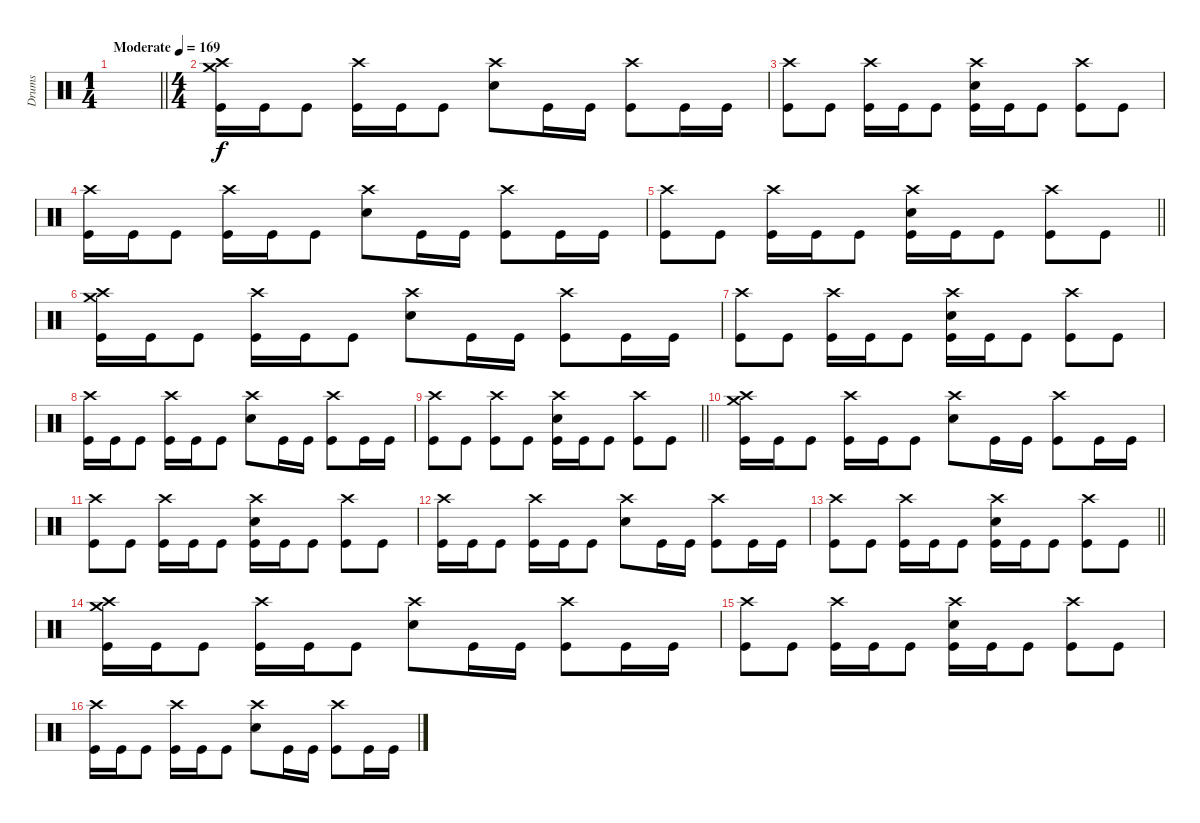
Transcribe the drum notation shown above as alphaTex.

\track ("Drums" "Drums") {instrument percussion}
\staff
\articulation defaults
\ts (1 4)
\tempo (169 "Moderate")
\clef neutral
\barLineRight lightlight
\ks c
|
\ts (4 4)
("Crash high (hit)" "Crash medium (hit)" "Kick (hit)").16 "Kick (hit)".16 "Kick (hit)".8 ("Crash high (hit)" "Kick (hit)").16 "Kick (hit)".16 "Kick (hit)".8 ("Crash high (hit)" "Electric Snare (hit)").8 "Kick (hit)".16 "Kick (hit)".16 ("Crash high (hit)" "Kick (hit)").8 "Kick (hit)".16 "Kick (hit)".16 |
("Crash high (hit)" "Kick (hit)").8 "Kick (hit)".8 ("Crash high (hit)" "Kick (hit)").16 "Kick (hit)".16 "Kick (hit)".8 ("Crash high (hit)" "Electric Snare (hit)" "Kick (hit)").16 "Kick (hit)".16 "Kick (hit)".8 ("Crash high (hit)" "Kick (hit)").8 "Kick (hit)".8 |
("Crash high (hit)" "Kick (hit)").16 "Kick (hit)".16 "Kick (hit)".8 ("Crash high (hit)" "Kick (hit)").16 "Kick (hit)".16 "Kick (hit)".8 ("Crash high (hit)" "Electric Snare (hit)").8 "Kick (hit)".16 "Kick (hit)".16 ("Crash high (hit)" "Kick (hit)").8 "Kick (hit)".16 "Kick (hit)".16 |
\barLineRight lightlight
("Crash high (hit)" "Kick (hit)").8 "Kick (hit)".8 ("Crash high (hit)" "Kick (hit)").16 "Kick (hit)".16 "Kick (hit)".8 ("Crash high (hit)" "Electric Snare (hit)" "Kick (hit)").16 "Kick (hit)".16 "Kick (hit)".8 ("Crash high (hit)" "Kick (hit)").8 "Kick (hit)".8 |
("Crash high (hit)" "Crash medium (hit)" "Kick (hit)").16 "Kick (hit)".16 "Kick (hit)".8 ("Crash high (hit)" "Kick (hit)").16 "Kick (hit)".16 "Kick (hit)".8 ("Crash high (hit)" "Electric Snare (hit)").8 "Kick (hit)".16 "Kick (hit)".16 ("Crash high (hit)" "Kick (hit)").8 "Kick (hit)".16 "Kick (hit)".16 |
("Crash high (hit)" "Kick (hit)").8 "Kick (hit)".8 ("Crash high (hit)" "Kick (hit)").16 "Kick (hit)".16 "Kick (hit)".8 ("Crash high (hit)" "Electric Snare (hit)" "Kick (hit)").16 "Kick (hit)".16 "Kick (hit)".8 ("Crash high (hit)" "Kick (hit)").8 "Kick (hit)".8 |
("Crash high (hit)" "Kick (hit)").16 "Kick (hit)".16 "Kick (hit)".8 ("Crash high (hit)" "Kick (hit)").16 "Kick (hit)".16 "Kick (hit)".8 ("Crash high (hit)" "Electric Snare (hit)").8 "Kick (hit)".16 "Kick (hit)".16 ("Crash high (hit)" "Kick (hit)").8 "Kick (hit)".16 "Kick (hit)".16 |
\barLineRight lightlight
("Crash high (hit)" "Kick (hit)").8 "Kick (hit)".8 ("Crash high (hit)" "Kick (hit)").8 "Kick (hit)".8 ("Crash high (hit)" "Electric Snare (hit)" "Kick (hit)").16 "Kick (hit)".16 "Kick (hit)".8 ("Crash high (hit)" "Kick (hit)").8 "Kick (hit)".8 |
("Crash high (hit)" "Crash medium (hit)" "Kick (hit)").16 "Kick (hit)".16 "Kick (hit)".8 ("Crash high (hit)" "Kick (hit)").16 "Kick (hit)".16 "Kick (hit)".8 ("Crash high (hit)" "Electric Snare (hit)").8 "Kick (hit)".16 "Kick (hit)".16 ("Crash high (hit)" "Kick (hit)").8 "Kick (hit)".16 "Kick (hit)".16 |
("Crash high (hit)" "Kick (hit)").8 "Kick (hit)".8 ("Crash high (hit)" "Kick (hit)").16 "Kick (hit)".16 "Kick (hit)".8 ("Crash high (hit)" "Electric Snare (hit)" "Kick (hit)").16 "Kick (hit)".16 "Kick (hit)".8 ("Crash high (hit)" "Kick (hit)").8 "Kick (hit)".8 |
("Crash high (hit)" "Kick (hit)").16 "Kick (hit)".16 "Kick (hit)".8 ("Crash high (hit)" "Kick (hit)").16 "Kick (hit)".16 "Kick (hit)".8 ("Crash high (hit)" "Electric Snare (hit)").8 "Kick (hit)".16 "Kick (hit)".16 ("Crash high (hit)" "Kick (hit)").8 "Kick (hit)".16 "Kick (hit)".16 |
\barLineRight lightlight
("Crash high (hit)" "Kick (hit)").8 "Kick (hit)".8 ("Crash high (hit)" "Kick (hit)").16 "Kick (hit)".16 "Kick (hit)".8 ("Crash high (hit)" "Electric Snare (hit)" "Kick (hit)").16 "Kick (hit)".16 "Kick (hit)".8 ("Crash high (hit)" "Kick (hit)").8 "Kick (hit)".8 |
("Crash high (hit)" "Crash medium (hit)" "Kick (hit)").16 "Kick (hit)".16 "Kick (hit)".8 ("Crash high (hit)" "Kick (hit)").16 "Kick (hit)".16 "Kick (hit)".8 ("Crash high (hit)" "Electric Snare (hit)").8 "Kick (hit)".16 "Kick (hit)".16 ("Crash high (hit)" "Kick (hit)").8 "Kick (hit)".16 "Kick (hit)".16 |
("Crash high (hit)" "Kick (hit)").8 "Kick (hit)".8 ("Crash high (hit)" "Kick (hit)").16 "Kick (hit)".16 "Kick (hit)".8 ("Crash high (hit)" "Electric Snare (hit)" "Kick (hit)").16 "Kick (hit)".16 "Kick (hit)".8 ("Crash high (hit)" "Kick (hit)").8 "Kick (hit)".8 |
("Crash high (hit)" "Kick (hit)").16 "Kick (hit)".16 "Kick (hit)".8 ("Crash high (hit)" "Kick (hit)").16 "Kick (hit)".16 "Kick (hit)".8 ("Crash high (hit)" "Electric Snare (hit)").8 "Kick (hit)".16 "Kick (hit)".16 ("Crash high (hit)" "Kick (hit)").8 "Kick (hit)".16 "Kick (hit)".16
